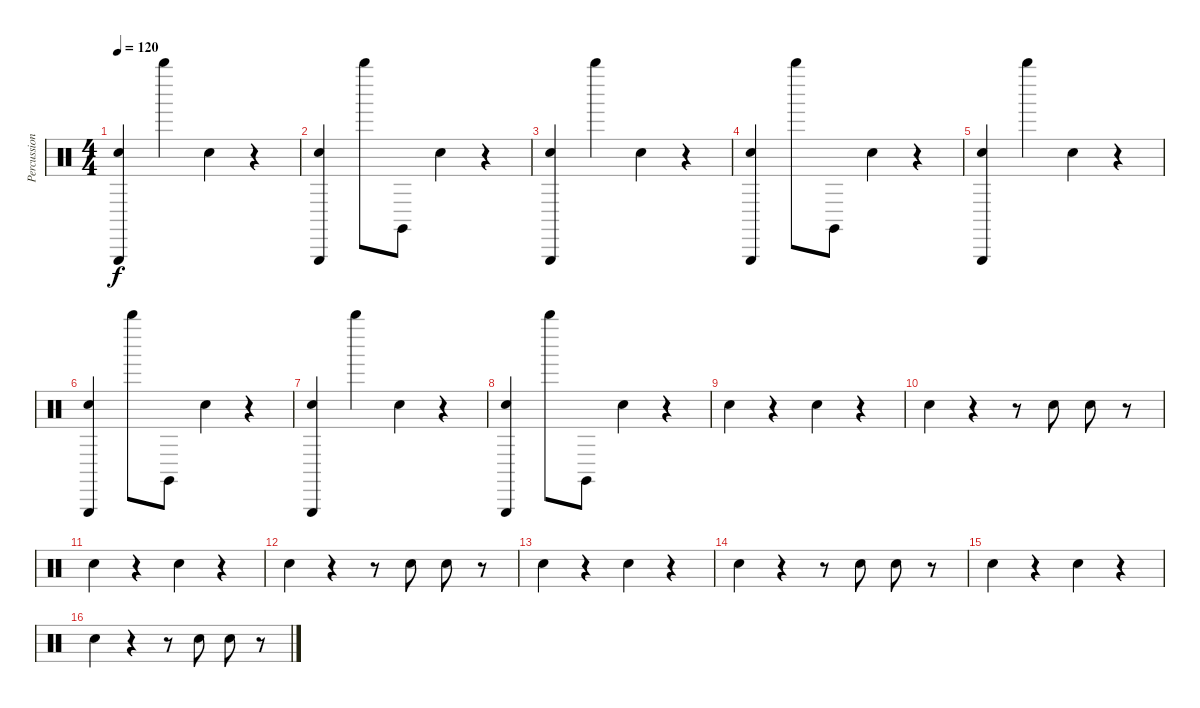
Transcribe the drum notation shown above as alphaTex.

\track ("Percussions" "Percussion") {instrument percussion}
\staff {score}
\articulation defaults
\ts (4 4)
\tempo 120
\clef neutral
\ks c
("Hand Clap (hit)" "Triangle (hit)").4{dy f} "Whistle high (hit)".4 "Hand Clap (hit)".4 r.4 |
("Hand Clap (hit)" "Triangle (hit)").4 "Whistle high (hit)".8 "Claves (hit)".8 "Hand Clap (hit)".4 r.4 |
("Hand Clap (hit)" "Triangle (hit)").4 "Whistle high (hit)".4 "Hand Clap (hit)".4 r.4 |
("Hand Clap (hit)" "Triangle (hit)").4 "Whistle high (hit)".8 "Claves (hit)".8 "Hand Clap (hit)".4 r.4 |
("Hand Clap (hit)" "Triangle (hit)").4 "Whistle high (hit)".4 "Hand Clap (hit)".4 r.4 |
("Hand Clap (hit)" "Triangle (hit)").4 "Whistle high (hit)".8 "Claves (hit)".8 "Hand Clap (hit)".4 r.4 |
("Hand Clap (hit)" "Triangle (hit)").4 "Whistle high (hit)".4 "Hand Clap (hit)".4 r.4 |
("Hand Clap (hit)" "Triangle (hit)").4 "Whistle high (hit)".8 "Claves (hit)".8 "Hand Clap (hit)".4 r.4 |
"Hand Clap (hit)".4 r.4 "Hand Clap (hit)".4 r.4 |
"Hand Clap (hit)".4 r.4 r.8 "Hand Clap (hit)".8 "Hand Clap (hit)".8 r.8 |
"Hand Clap (hit)".4 r.4 "Hand Clap (hit)".4 r.4 |
"Hand Clap (hit)".4 r.4 r.8 "Hand Clap (hit)".8 "Hand Clap (hit)".8 r.8 |
"Hand Clap (hit)".4 r.4 "Hand Clap (hit)".4 r.4 |
"Hand Clap (hit)".4 r.4 r.8 "Hand Clap (hit)".8 "Hand Clap (hit)".8 r.8 |
"Hand Clap (hit)".4 r.4 "Hand Clap (hit)".4 r.4 |
"Hand Clap (hit)".4 r.4 r.8 "Hand Clap (hit)".8 "Hand Clap (hit)".8 r.8
